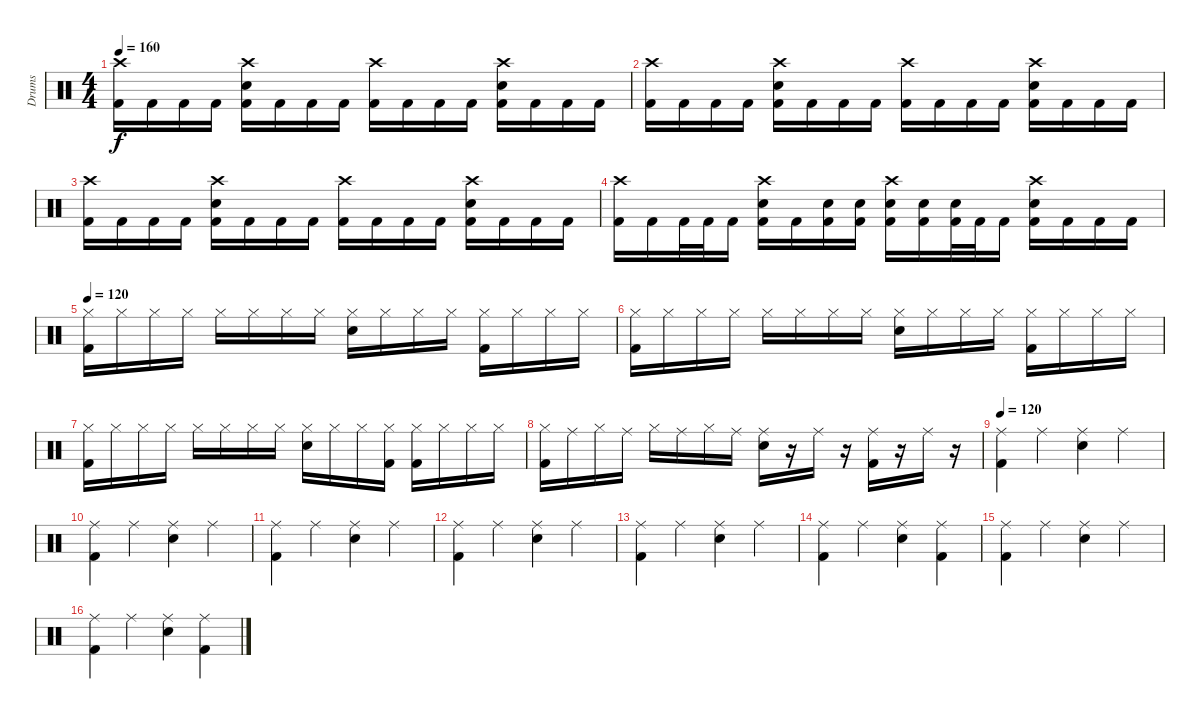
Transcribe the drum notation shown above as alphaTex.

\track ("Drums" "Drums") {instrument percussion}
\staff {score}
\articulation defaults
\ts (4 4)
\tempo 160
\clef neutral
\ks c
("Crash high (hit)" "Kick (hit) 2").16{dy f} "Kick (hit) 2".16 "Kick (hit) 2".16 "Kick (hit) 2".16 ("Crash high (hit)" "Electric Snare (hit)" "Kick (hit) 2").16 "Kick (hit) 2".16 "Kick (hit) 2".16 "Kick (hit) 2".16 ("Crash high (hit)" "Kick (hit) 2").16 "Kick (hit) 2".16 "Kick (hit) 2".16 "Kick (hit) 2".16 ("Crash high (hit)" "Electric Snare (hit)" "Kick (hit) 2").16 "Kick (hit) 2".16 "Kick (hit) 2".16 "Kick (hit) 2".16 |
("Crash high (hit)" "Kick (hit) 2").16 "Kick (hit) 2".16 "Kick (hit) 2".16 "Kick (hit) 2".16 ("Crash high (hit)" "Electric Snare (hit)" "Kick (hit) 2").16 "Kick (hit) 2".16 "Kick (hit) 2".16 "Kick (hit) 2".16 ("Crash high (hit)" "Kick (hit) 2").16 "Kick (hit) 2".16 "Kick (hit) 2".16 "Kick (hit) 2".16 ("Crash high (hit)" "Electric Snare (hit)" "Kick (hit) 2").16 "Kick (hit) 2".16 "Kick (hit) 2".16 "Kick (hit) 2".16 |
("Crash high (hit)" "Kick (hit) 2").16 "Kick (hit) 2".16 "Kick (hit) 2".16 "Kick (hit) 2".16 ("Crash high (hit)" "Electric Snare (hit)" "Kick (hit) 2").16 "Kick (hit) 2".16 "Kick (hit) 2".16 "Kick (hit) 2".16 ("Crash high (hit)" "Kick (hit) 2").16 "Kick (hit) 2".16 "Kick (hit) 2".16 "Kick (hit) 2".16 ("Crash high (hit)" "Electric Snare (hit)" "Kick (hit) 2").16 "Kick (hit) 2".16 "Kick (hit) 2".16 "Kick (hit) 2".16 |
("Crash high (hit)" "Kick (hit) 2").16 "Kick (hit) 2".16 "Kick (hit) 2".32 "Kick (hit) 2".32 "Kick (hit) 2".16 ("Crash high (hit)" "Electric Snare (hit)" "Kick (hit) 2").16 "Kick (hit) 2".16 ("Electric Snare (hit)" "Kick (hit) 2").16 ("Electric Snare (hit)" "Kick (hit) 2").16 ("Crash high (hit)" "Electric Snare (hit)" "Kick (hit) 2").16 ("Electric Snare (hit)" "Kick (hit) 2").16 ("Electric Snare (hit)" "Kick (hit) 2").32 "Kick (hit) 2".32 "Kick (hit) 2".16 ("Crash high (hit)" "Electric Snare (hit)" "Kick (hit) 2").16 "Kick (hit) 2".16 "Kick (hit) 2".16 "Kick (hit) 2".16 |
\tempo 120
("Hi-Hat (closed)" "Kick (hit) 2").16 "Hi-Hat (closed)".16 "Hi-Hat (closed)".16 "Hi-Hat (closed)".16 "Hi-Hat (closed)".16 "Hi-Hat (closed)".16 "Hi-Hat (closed)".16 "Hi-Hat (closed)".16 ("Hi-Hat (closed)" "Electric Snare (hit)").16 "Hi-Hat (closed)".16 "Hi-Hat (closed)".16 "Hi-Hat (closed)".16 ("Hi-Hat (closed)" "Kick (hit) 2").16 "Hi-Hat (closed)".16 "Hi-Hat (closed)".16 "Hi-Hat (closed)".16 |
("Hi-Hat (closed)" "Kick (hit) 2").16 "Hi-Hat (closed)".16 "Hi-Hat (closed)".16 "Hi-Hat (closed)".16 "Hi-Hat (closed)".16 "Hi-Hat (closed)".16 "Hi-Hat (closed)".16 "Hi-Hat (closed)".16 ("Hi-Hat (closed)" "Electric Snare (hit)").16 "Hi-Hat (closed)".16 "Hi-Hat (closed)".16 "Hi-Hat (closed)".16 ("Hi-Hat (closed)" "Kick (hit) 2").16 "Hi-Hat (closed)".16 "Hi-Hat (closed)".16 "Hi-Hat (closed)".16 |
("Hi-Hat (closed)" "Kick (hit) 2").16 "Hi-Hat (closed)".16 "Hi-Hat (closed)".16 "Hi-Hat (closed)".16 "Hi-Hat (closed)".16 "Hi-Hat (closed)".16 "Hi-Hat (closed)".16 "Hi-Hat (closed)".16 ("Hi-Hat (closed)" "Electric Snare (hit)").16 "Hi-Hat (closed)".16 "Hi-Hat (closed)".16 ("Hi-Hat (closed)" "Kick (hit) 2").16 ("Hi-Hat (closed)" "Kick (hit) 2").16 "Hi-Hat (closed)".16 "Hi-Hat (closed)".16 "Hi-Hat (closed)".16 |
("Hi-Hat (closed)" "Kick (hit) 2").16 "Ride (middle)".16 "Hi-Hat (closed)".16 "Ride (middle)".16 "Hi-Hat (closed)".16 "Ride (middle)".16 "Hi-Hat (closed)".16 "Ride (middle)".16 ("Ride (middle)" "Electric Snare (hit)").16 r.16 "Ride (middle)".16 r.16 ("Ride (middle)" "Kick (hit) 2").16 r.16 "Ride (middle)".16 r.16 |
\tempo 120
("Ride (middle)" "Kick (hit) 2").4 "Ride (middle)".4 ("Ride (middle)" "Electric Snare (hit)").4 "Ride (middle)".4 |
("Ride (middle)" "Kick (hit) 2").4 "Ride (middle)".4 ("Ride (middle)" "Electric Snare (hit)").4 "Ride (middle)".4 |
("Ride (middle)" "Kick (hit) 2").4 "Ride (middle)".4 ("Ride (middle)" "Electric Snare (hit)").4 "Ride (middle)".4 |
("Ride (middle)" "Kick (hit) 2").4 "Ride (middle)".4 ("Ride (middle)" "Electric Snare (hit)").4 "Ride (middle)".4 |
("Ride (middle)" "Kick (hit) 2").4 "Ride (middle)".4 ("Ride (middle)" "Electric Snare (hit)").4 "Ride (middle)".4 |
("Ride (middle)" "Kick (hit) 2").4 "Ride (middle)".4 ("Ride (middle)" "Electric Snare (hit)").4 ("Ride (middle)" "Kick (hit) 2").4 |
("Ride (middle)" "Kick (hit) 2").4 "Ride (middle)".4 ("Ride (middle)" "Electric Snare (hit)").4 "Ride (middle)".4 |
("Ride (middle)" "Kick (hit) 2").4 "Ride (middle)".4 ("Ride (middle)" "Electric Snare (hit)").4 ("Ride (middle)" "Kick (hit) 2").4
